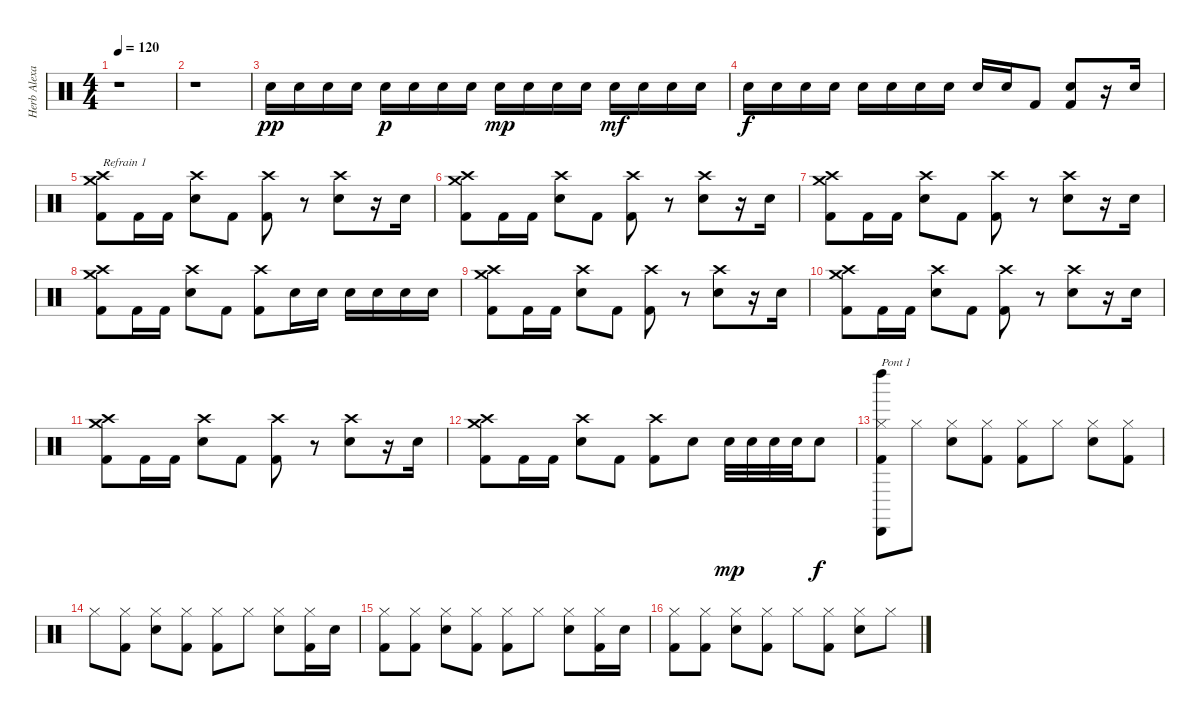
\track ("Herb Alexander" "Herb Alexa") {instrument percussion}
\staff {score}
\articulation defaults
\ts (4 4)
\tempo 120
\clef neutral
\ks c
r.1{dy pp} |
r.1 |
"Electric Snare (hit)".16 "Electric Snare (hit)".16 "Electric Snare (hit)".16 "Electric Snare (hit)".16 "Electric Snare (hit)".16{dy p} "Electric Snare (hit)".16 "Electric Snare (hit)".16 "Electric Snare (hit)".16 "Electric Snare (hit)".16{dy mp} "Electric Snare (hit)".16 "Electric Snare (hit)".16 "Electric Snare (hit)".16 "Electric Snare (hit)".16{dy mf} "Electric Snare (hit)".16 "Electric Snare (hit)".16 "Electric Snare (hit)".16 |
"Electric Snare (hit)".16{dy f} "Electric Snare (hit)".16 "Electric Snare (hit)".16 "Electric Snare (hit)".16 "Electric Snare (hit)".16 "Electric Snare (hit)".16 "Electric Snare (hit)".16 "Electric Snare (hit)".16 "Electric Snare (hit)".16 "Electric Snare (hit)".16 "Kick (hit) 2".8 ("Electric Snare (hit)" "Kick (hit) 2").8 r.16 "Electric Snare (hit)".16 |
("Crash medium (hit)" "Crash high (hit)" "Kick (hit) 2").8{txt "Refrain 1"} "Kick (hit) 2".16 "Kick (hit) 2".16 ("Crash high (hit)" "Electric Snare (hit)").8 "Kick (hit) 2".8 ("Crash high (hit)" "Kick (hit) 2").8 r.8 ("Crash high (hit)" "Electric Snare (hit)").8 r.16 "Electric Snare (hit)".16 |
("Crash medium (hit)" "Crash high (hit)" "Kick (hit) 2").8 "Kick (hit) 2".16 "Kick (hit) 2".16 ("Crash high (hit)" "Electric Snare (hit)").8 "Kick (hit) 2".8 ("Crash high (hit)" "Kick (hit) 2").8 r.8 ("Crash high (hit)" "Electric Snare (hit)").8 r.16 "Electric Snare (hit)".16 |
("Crash medium (hit)" "Crash high (hit)" "Kick (hit) 2").8 "Kick (hit) 2".16 "Kick (hit) 2".16 ("Crash high (hit)" "Electric Snare (hit)").8 "Kick (hit) 2".8 ("Crash high (hit)" "Kick (hit) 2").8 r.8 ("Crash high (hit)" "Electric Snare (hit)").8 r.16 "Electric Snare (hit)".16 |
("Crash medium (hit)" "Crash high (hit)" "Kick (hit) 2").8 "Kick (hit) 2".16 "Kick (hit) 2".16 ("Crash high (hit)" "Electric Snare (hit)").8 "Kick (hit) 2".8 ("Crash high (hit)" "Kick (hit) 2").8 "Electric Snare (hit)".16 "Electric Snare (hit)".16 "Electric Snare (hit)".16 "Electric Snare (hit)".16 "Electric Snare (hit)".16 "Electric Snare (hit)".16 |
("Crash medium (hit)" "Crash high (hit)" "Kick (hit) 2").8 "Kick (hit) 2".16 "Kick (hit) 2".16 ("Crash high (hit)" "Electric Snare (hit)").8 "Kick (hit) 2".8 ("Crash high (hit)" "Kick (hit) 2").8 r.8 ("Crash high (hit)" "Electric Snare (hit)").8 r.16 "Electric Snare (hit)".16 |
("Crash medium (hit)" "Crash high (hit)" "Kick (hit) 2").8 "Kick (hit) 2".16 "Kick (hit) 2".16 ("Crash high (hit)" "Electric Snare (hit)").8 "Kick (hit) 2".8 ("Crash high (hit)" "Kick (hit) 2").8 r.8 ("Crash high (hit)" "Electric Snare (hit)").8 r.16 "Electric Snare (hit)".16 |
("Crash medium (hit)" "Crash high (hit)" "Kick (hit) 2").8 "Kick (hit) 2".16 "Kick (hit) 2".16 ("Crash high (hit)" "Electric Snare (hit)").8 "Kick (hit) 2".8 ("Crash high (hit)" "Kick (hit) 2").8 r.8 ("Crash high (hit)" "Electric Snare (hit)").8 r.16 "Electric Snare (hit)".16 |
("Crash medium (hit)" "Crash high (hit)" "Kick (hit) 2").8 "Kick (hit) 2".16 "Kick (hit) 2".16 ("Crash high (hit)" "Electric Snare (hit)").8 "Kick (hit) 2".8 ("Crash high (hit)" "Kick (hit) 2").8 "Electric Snare (hit)".8 "Electric Snare (hit)".32{dy mp} "Electric Snare (hit)".32 "Electric Snare (hit)".32 "Electric Snare (hit)".32 "Electric Snare (hit)".8{dy f} |
("Left Maraca (hit)" "Cabasa (hit)" "Hi-Hat (closed)" "Kick (hit) 2").8{txt "Pont 1"} "Hi-Hat (closed)".8 ("Electric Snare (hit)" "Hi-Hat (closed)").8 ("Hi-Hat (closed)" "Kick (hit) 2").8 ("Hi-Hat (closed)" "Kick (hit) 2").8 "Hi-Hat (closed)".8 ("Electric Snare (hit)" "Hi-Hat (closed)").8 ("Hi-Hat (closed)" "Kick (hit) 2").8 |
"Hi-Hat (closed)".8 ("Hi-Hat (closed)" "Kick (hit) 2").8 ("Electric Snare (hit)" "Hi-Hat (closed)").8 ("Hi-Hat (closed)" "Kick (hit) 2").8 ("Hi-Hat (closed)" "Kick (hit) 2").8 "Hi-Hat (closed)".8 ("Electric Snare (hit)" "Hi-Hat (closed)").8 ("Hi-Hat (closed)" "Kick (hit) 2").16 "Electric Snare (hit)".16 |
("Hi-Hat (closed)" "Kick (hit) 2").8 ("Hi-Hat (closed)" "Kick (hit) 2").8 ("Electric Snare (hit)" "Hi-Hat (closed)").8 ("Hi-Hat (closed)" "Kick (hit) 2").8 ("Hi-Hat (closed)" "Kick (hit) 2").8 "Hi-Hat (closed)".8 ("Electric Snare (hit)" "Hi-Hat (closed)").8 ("Hi-Hat (closed)" "Kick (hit) 2").16 "Electric Snare (hit)".16 |
("Hi-Hat (closed)" "Kick (hit) 2").8 ("Hi-Hat (closed)" "Kick (hit) 2").8 ("Electric Snare (hit)" "Hi-Hat (closed)").8 ("Hi-Hat (closed)" "Kick (hit) 2").8 "Hi-Hat (closed)".8 ("Hi-Hat (closed)" "Kick (hit) 2").8 ("Electric Snare (hit)" "Hi-Hat (closed)").8 "Hi-Hat (closed)".8
